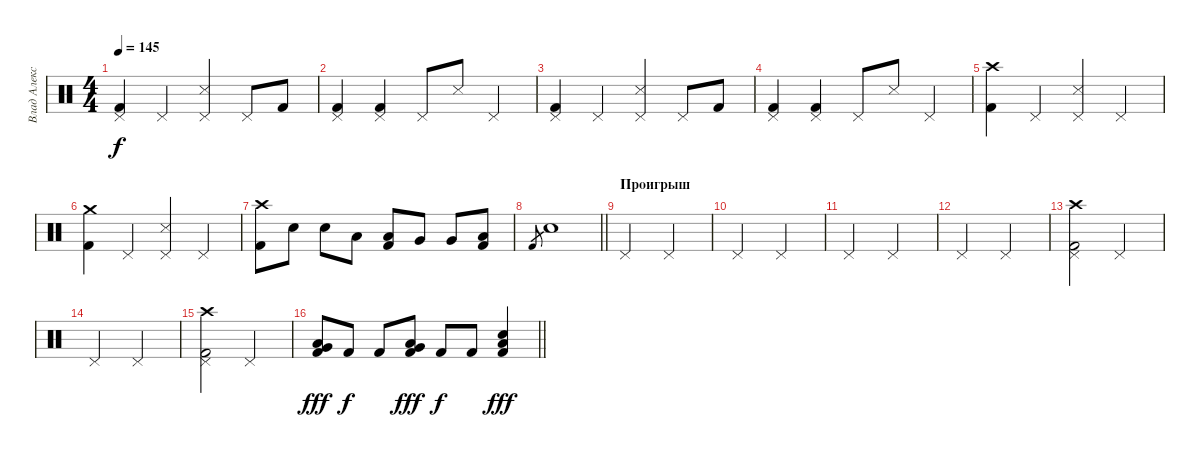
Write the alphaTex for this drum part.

\track ("Влад Алексеенко" "Влад Алекс") {instrument percussion}
\staff {score}
\articulation defaults
\ts (4 4)
\tempo 145
\clef neutral
\ks c
("Pedal Hi-Hat (hit)" "Kick (hit) 2").4{dy f} "Pedal Hi-Hat (hit)".4 ("Pedal Hi-Hat (hit)" "Metronome (hit)").4 "Pedal Hi-Hat (hit)".8 "Kick (hit) 2".8 |
("Pedal Hi-Hat (hit)" "Kick (hit) 2").4 ("Pedal Hi-Hat (hit)" "Kick (hit) 2").4 "Pedal Hi-Hat (hit)".8 "Metronome (hit)".8 "Pedal Hi-Hat (hit)".4 |
("Pedal Hi-Hat (hit)" "Kick (hit) 2").4 "Pedal Hi-Hat (hit)".4 ("Pedal Hi-Hat (hit)" "Metronome (hit)").4 "Pedal Hi-Hat (hit)".8 "Kick (hit) 2".8 |
("Pedal Hi-Hat (hit)" "Kick (hit) 2").4 ("Pedal Hi-Hat (hit)" "Kick (hit) 2").4 "Pedal Hi-Hat (hit)".8 "Metronome (hit)".8 "Pedal Hi-Hat (hit)".4 |
("Crash high (hit)" "Kick (hit) 2").4 "Pedal Hi-Hat (hit)".4 ("Pedal Hi-Hat (hit)" "Metronome (hit)").4 "Pedal Hi-Hat (hit)".4 |
("Crash medium (hit)" "Kick (hit) 2").4 "Pedal Hi-Hat (hit)".4 ("Pedal Hi-Hat (hit)" "Metronome (hit)").4 "Pedal Hi-Hat (hit)".4 |
("Crash high (hit)" "Kick (hit) 2").8 "Electric Snare (hit)".8 "Electric Snare (hit)".8 "Low Tom (hit)".8 ("Low Tom (hit)" "Kick (hit) 2").8 "Very Low Tom (hit)".8 "Very Low Tom (hit)".8 ("Low Floor Tom (hit)" "Kick (hit) 2").8 |
\barLineRight lightlight "Kick (hit) 2".8{gr} "Electric Snare (hit)".1
|
\section ("" "Проигрыш")
"Pedal Hi-Hat (hit)".2 "Pedal Hi-Hat (hit)".2 |
"Pedal Hi-Hat (hit)".2 "Pedal Hi-Hat (hit)".2 |
"Pedal Hi-Hat (hit)".2 "Pedal Hi-Hat (hit)".2 |
"Pedal Hi-Hat (hit)".2 "Pedal Hi-Hat (hit)".2 |
("Pedal Hi-Hat (hit)" "Crash high (hit)" "Kick (hit) 2").2 "Pedal Hi-Hat (hit)".2 |
"Pedal Hi-Hat (hit)".2 "Pedal Hi-Hat (hit)".2 |
("Pedal Hi-Hat (hit)" "Crash high (hit)" "Kick (hit) 2").2 "Pedal Hi-Hat (hit)".2 |
\barLineRight lightlight
("Low Tom (hit)" "Kick (hit) 2" "Very Low Tom (hit)").8{dy fff} "Kick (hit) 2".8{dy f} "Kick (hit) 2".8 ("Low Tom (hit)" "Kick (hit) 2" "Very Low Tom (hit)").8{dy fff} "Kick (hit) 2".8{dy f} "Kick (hit) 2".8 ("Low Tom (hit)" "Kick (hit) 2" "Electric Snare (hit)").4{dy fff}
